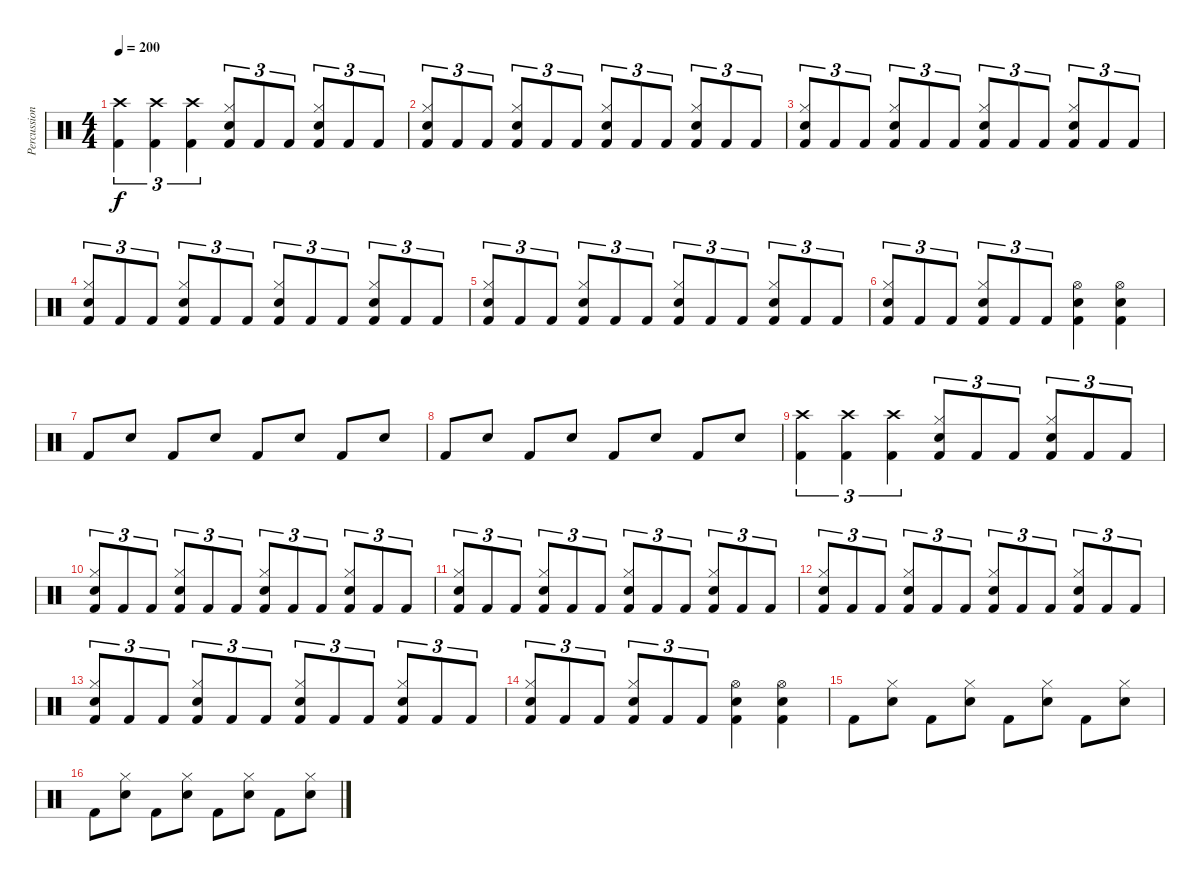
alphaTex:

\track ("Percussion" "Percussion") {instrument percussion}
\staff {score}
\articulation defaults
\ts (4 4)
\tempo 200
\clef neutral
\ks c
("Crash high (hit)" "Kick (hit) 2").4{tu (3 2) dy f} ("Crash high (hit)" "Kick (hit) 2").4{tu (3 2)} ("Crash high (hit)" "Kick (hit) 2").4{tu (3 2)} ("Hi-Hat (closed)" "Snare (hit) 2" "Kick (hit) 2").8{tu (3 2)} "Kick (hit) 2".8{tu (3 2)} "Kick (hit) 2".8{tu (3 2)} ("Hi-Hat (closed)" "Snare (hit) 2" "Kick (hit) 2").8{tu (3 2)} "Kick (hit) 2".8{tu (3 2)} "Kick (hit) 2".8{tu (3 2)} |
("Hi-Hat (closed)" "Snare (hit) 2" "Kick (hit) 2").8{tu (3 2)} "Kick (hit) 2".8{tu (3 2)} "Kick (hit) 2".8{tu (3 2)} ("Hi-Hat (closed)" "Snare (hit) 2" "Kick (hit) 2").8{tu (3 2)} "Kick (hit) 2".8{tu (3 2)} "Kick (hit) 2".8{tu (3 2)} ("Hi-Hat (closed)" "Snare (hit) 2" "Kick (hit) 2").8{tu (3 2)} "Kick (hit) 2".8{tu (3 2)} "Kick (hit) 2".8{tu (3 2)} ("Hi-Hat (closed)" "Snare (hit) 2" "Kick (hit) 2").8{tu (3 2)} "Kick (hit) 2".8{tu (3 2)} "Kick (hit) 2".8{tu (3 2)} |
("Hi-Hat (closed)" "Snare (hit) 2" "Kick (hit) 2").8{tu (3 2)} "Kick (hit) 2".8{tu (3 2)} "Kick (hit) 2".8{tu (3 2)} ("Hi-Hat (closed)" "Snare (hit) 2" "Kick (hit) 2").8{tu (3 2)} "Kick (hit) 2".8{tu (3 2)} "Kick (hit) 2".8{tu (3 2)} ("Hi-Hat (closed)" "Snare (hit) 2" "Kick (hit) 2").8{tu (3 2)} "Kick (hit) 2".8{tu (3 2)} "Kick (hit) 2".8{tu (3 2)} ("Hi-Hat (closed)" "Snare (hit) 2" "Kick (hit) 2").8{tu (3 2)} "Kick (hit) 2".8{tu (3 2)} "Kick (hit) 2".8{tu (3 2)} |
("Hi-Hat (closed)" "Snare (hit) 2" "Kick (hit) 2").8{tu (3 2)} "Kick (hit) 2".8{tu (3 2)} "Kick (hit) 2".8{tu (3 2)} ("Hi-Hat (closed)" "Snare (hit) 2" "Kick (hit) 2").8{tu (3 2)} "Kick (hit) 2".8{tu (3 2)} "Kick (hit) 2".8{tu (3 2)} ("Hi-Hat (closed)" "Snare (hit) 2" "Kick (hit) 2").8{tu (3 2)} "Kick (hit) 2".8{tu (3 2)} "Kick (hit) 2".8{tu (3 2)} ("Hi-Hat (closed)" "Snare (hit) 2" "Kick (hit) 2").8{tu (3 2)} "Kick (hit) 2".8{tu (3 2)} "Kick (hit) 2".8{tu (3 2)} |
("Hi-Hat (closed)" "Snare (hit) 2" "Kick (hit) 2").8{tu (3 2)} "Kick (hit) 2".8{tu (3 2)} "Kick (hit) 2".8{tu (3 2)} ("Hi-Hat (closed)" "Snare (hit) 2" "Kick (hit) 2").8{tu (3 2)} "Kick (hit) 2".8{tu (3 2)} "Kick (hit) 2".8{tu (3 2)} ("Hi-Hat (closed)" "Snare (hit) 2" "Kick (hit) 2").8{tu (3 2)} "Kick (hit) 2".8{tu (3 2)} "Kick (hit) 2".8{tu (3 2)} ("Hi-Hat (closed)" "Snare (hit) 2" "Kick (hit) 2").8{tu (3 2)} "Kick (hit) 2".8{tu (3 2)} "Kick (hit) 2".8{tu (3 2)} |
("Hi-Hat (closed)" "Snare (hit) 2" "Kick (hit) 2").8{tu (3 2)} "Kick (hit) 2".8{tu (3 2)} "Kick (hit) 2".8{tu (3 2)} ("Hi-Hat (closed)" "Snare (hit) 2" "Kick (hit) 2").8{tu (3 2)} "Kick (hit) 2".8{tu (3 2)} "Kick (hit) 2".8{tu (3 2)} ("Hi-Hat (open)" "Snare (hit) 2" "Kick (hit) 2").4 ("Hi-Hat (open)" "Snare (hit) 2" "Kick (hit) 2").4 |
"Kick (hit) 2".8 "Snare (hit) 2".8 "Kick (hit) 2".8 "Snare (hit) 2".8 "Kick (hit) 2".8 "Snare (hit) 2".8 "Kick (hit) 2".8 "Snare (hit) 2".8 |
"Kick (hit) 2".8 "Snare (hit) 2".8 "Kick (hit) 2".8 "Snare (hit) 2".8 "Kick (hit) 2".8 "Snare (hit) 2".8 "Kick (hit) 2".8 "Snare (hit) 2".8 |
("Crash high (hit)" "Kick (hit) 2").4{tu (3 2)} ("Crash high (hit)" "Kick (hit) 2").4{tu (3 2)} ("Crash high (hit)" "Kick (hit) 2").4{tu (3 2)} ("Hi-Hat (closed)" "Snare (hit) 2" "Kick (hit) 2").8{tu (3 2)} "Kick (hit) 2".8{tu (3 2)} "Kick (hit) 2".8{tu (3 2)} ("Hi-Hat (closed)" "Snare (hit) 2" "Kick (hit) 2").8{tu (3 2)} "Kick (hit) 2".8{tu (3 2)} "Kick (hit) 2".8{tu (3 2)} |
("Hi-Hat (closed)" "Snare (hit) 2" "Kick (hit) 2").8{tu (3 2)} "Kick (hit) 2".8{tu (3 2)} "Kick (hit) 2".8{tu (3 2)} ("Hi-Hat (closed)" "Snare (hit) 2" "Kick (hit) 2").8{tu (3 2)} "Kick (hit) 2".8{tu (3 2)} "Kick (hit) 2".8{tu (3 2)} ("Hi-Hat (closed)" "Snare (hit) 2" "Kick (hit) 2").8{tu (3 2)} "Kick (hit) 2".8{tu (3 2)} "Kick (hit) 2".8{tu (3 2)} ("Hi-Hat (closed)" "Snare (hit) 2" "Kick (hit) 2").8{tu (3 2)} "Kick (hit) 2".8{tu (3 2)} "Kick (hit) 2".8{tu (3 2)} |
("Hi-Hat (closed)" "Snare (hit) 2" "Kick (hit) 2").8{tu (3 2)} "Kick (hit) 2".8{tu (3 2)} "Kick (hit) 2".8{tu (3 2)} ("Hi-Hat (closed)" "Snare (hit) 2" "Kick (hit) 2").8{tu (3 2)} "Kick (hit) 2".8{tu (3 2)} "Kick (hit) 2".8{tu (3 2)} ("Hi-Hat (closed)" "Snare (hit) 2" "Kick (hit) 2").8{tu (3 2)} "Kick (hit) 2".8{tu (3 2)} "Kick (hit) 2".8{tu (3 2)} ("Hi-Hat (closed)" "Snare (hit) 2" "Kick (hit) 2").8{tu (3 2)} "Kick (hit) 2".8{tu (3 2)} "Kick (hit) 2".8{tu (3 2)} |
("Hi-Hat (closed)" "Snare (hit) 2" "Kick (hit) 2").8{tu (3 2)} "Kick (hit) 2".8{tu (3 2)} "Kick (hit) 2".8{tu (3 2)} ("Hi-Hat (closed)" "Snare (hit) 2" "Kick (hit) 2").8{tu (3 2)} "Kick (hit) 2".8{tu (3 2)} "Kick (hit) 2".8{tu (3 2)} ("Hi-Hat (closed)" "Snare (hit) 2" "Kick (hit) 2").8{tu (3 2)} "Kick (hit) 2".8{tu (3 2)} "Kick (hit) 2".8{tu (3 2)} ("Hi-Hat (closed)" "Snare (hit) 2" "Kick (hit) 2").8{tu (3 2)} "Kick (hit) 2".8{tu (3 2)} "Kick (hit) 2".8{tu (3 2)} |
("Hi-Hat (closed)" "Snare (hit) 2" "Kick (hit) 2").8{tu (3 2)} "Kick (hit) 2".8{tu (3 2)} "Kick (hit) 2".8{tu (3 2)} ("Hi-Hat (closed)" "Snare (hit) 2" "Kick (hit) 2").8{tu (3 2)} "Kick (hit) 2".8{tu (3 2)} "Kick (hit) 2".8{tu (3 2)} ("Hi-Hat (closed)" "Snare (hit) 2" "Kick (hit) 2").8{tu (3 2)} "Kick (hit) 2".8{tu (3 2)} "Kick (hit) 2".8{tu (3 2)} ("Hi-Hat (closed)" "Snare (hit) 2" "Kick (hit) 2").8{tu (3 2)} "Kick (hit) 2".8{tu (3 2)} "Kick (hit) 2".8{tu (3 2)} |
("Hi-Hat (closed)" "Snare (hit) 2" "Kick (hit) 2").8{tu (3 2)} "Kick (hit) 2".8{tu (3 2)} "Kick (hit) 2".8{tu (3 2)} ("Hi-Hat (closed)" "Snare (hit) 2" "Kick (hit) 2").8{tu (3 2)} "Kick (hit) 2".8{tu (3 2)} "Kick (hit) 2".8{tu (3 2)} ("Hi-Hat (open)" "Snare (hit) 2" "Kick (hit) 2").4 ("Hi-Hat (open)" "Snare (hit) 2" "Kick (hit) 2").4 |
"Kick (hit) 2".8 ("Hi-Hat (closed)" "Snare (hit) 2").8 "Kick (hit) 2".8 ("Hi-Hat (closed)" "Snare (hit) 2").8 "Kick (hit) 2".8 ("Hi-Hat (closed)" "Snare (hit) 2").8 "Kick (hit) 2".8 ("Hi-Hat (closed)" "Snare (hit) 2").8 |
"Kick (hit) 2".8 ("Hi-Hat (closed)" "Snare (hit) 2").8 "Kick (hit) 2".8 ("Hi-Hat (closed)" "Snare (hit) 2").8 "Kick (hit) 2".8 ("Hi-Hat (closed)" "Snare (hit) 2").8 "Kick (hit) 2".8 ("Hi-Hat (closed)" "Snare (hit) 2").8
